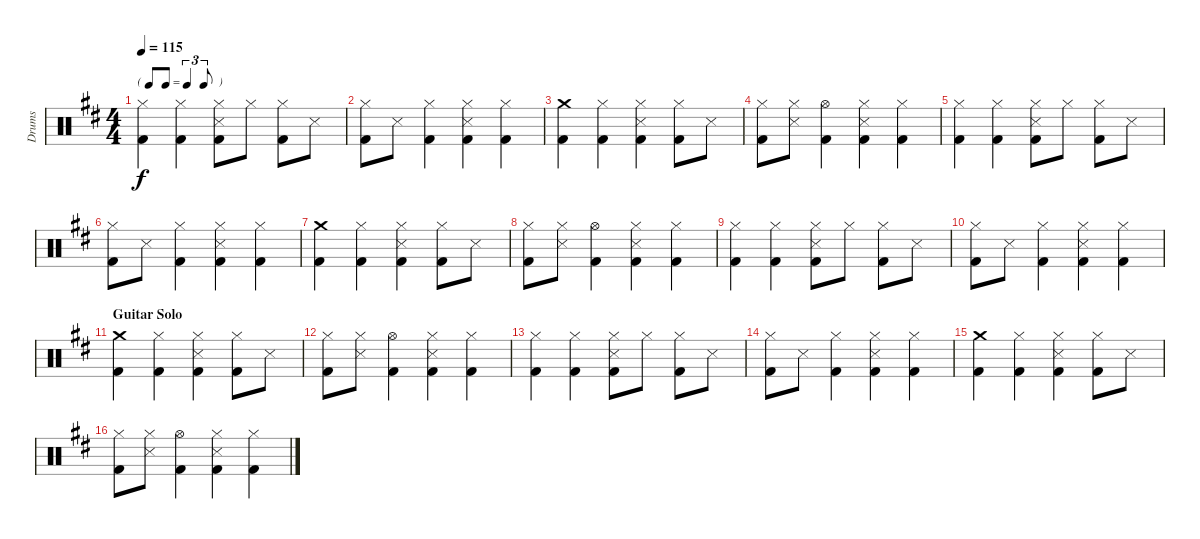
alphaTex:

\track ("Drums" "Drums") {instrument percussion}
\staff {score}
\articulation defaults
\ts (4 4)
\tf triplet8th
\tempo 115
\clef neutral
\ks d
("Hi-Hat (closed)" "Kick (hit) 2").4{dy f} ("Hi-Hat (closed)" "Kick (hit) 2").4 ("Hi-Hat (closed)" "Snare (side stick) 3" "Kick (hit) 2").8 "Hi-Hat (closed)".8 ("Hi-Hat (closed)" "Kick (hit) 2").8 "Snare (side stick) 3".8 |
("Hi-Hat (closed)" "Kick (hit) 2").8 "Snare (side stick) 3".8 ("Hi-Hat (closed)" "Kick (hit) 2").4 ("Hi-Hat (closed)" "Snare (side stick) 3" "Kick (hit) 2").4 ("Hi-Hat (closed)" "Kick (hit) 2").4 |
("Crash medium (hit)" "Kick (hit) 2").4 ("Hi-Hat (closed)" "Kick (hit) 2").4 ("Hi-Hat (closed)" "Snare (side stick) 3" "Kick (hit) 2").4 ("Hi-Hat (closed)" "Kick (hit) 2").8 "Snare (side stick) 3".8 |
("Hi-Hat (closed)" "Kick (hit) 2").8 ("Hi-Hat (closed)" "Snare (side stick) 3").8 ("Hi-Hat (open)" "Kick (hit) 2").4 ("Hi-Hat (closed)" "Snare (side stick) 3" "Kick (hit) 2").4 ("Hi-Hat (closed)" "Kick (hit) 2").4 |
("Hi-Hat (closed)" "Kick (hit) 2").4 ("Hi-Hat (closed)" "Kick (hit) 2").4 ("Hi-Hat (closed)" "Snare (side stick) 3" "Kick (hit) 2").8 "Hi-Hat (closed)".8 ("Hi-Hat (closed)" "Kick (hit) 2").8 "Snare (side stick) 3".8 |
("Hi-Hat (closed)" "Kick (hit) 2").8 "Snare (side stick) 3".8 ("Hi-Hat (closed)" "Kick (hit) 2").4 ("Hi-Hat (closed)" "Snare (side stick) 3" "Kick (hit) 2").4 ("Hi-Hat (closed)" "Kick (hit) 2").4 |
("Crash medium (hit)" "Kick (hit) 2").4 ("Hi-Hat (closed)" "Kick (hit) 2").4 ("Hi-Hat (closed)" "Snare (side stick) 3" "Kick (hit) 2").4 ("Hi-Hat (closed)" "Kick (hit) 2").8 "Snare (side stick) 3".8 |
("Hi-Hat (closed)" "Kick (hit) 2").8 ("Hi-Hat (closed)" "Snare (side stick) 3").8 ("Hi-Hat (open)" "Kick (hit) 2").4 ("Hi-Hat (closed)" "Snare (side stick) 3" "Kick (hit) 2").4 ("Hi-Hat (closed)" "Kick (hit) 2").4 |
("Hi-Hat (closed)" "Kick (hit) 2").4 ("Hi-Hat (closed)" "Kick (hit) 2").4 ("Hi-Hat (closed)" "Snare (side stick) 3" "Kick (hit) 2").8 "Hi-Hat (closed)".8 ("Hi-Hat (closed)" "Kick (hit) 2").8 "Snare (side stick) 3".8 |
("Hi-Hat (closed)" "Kick (hit) 2").8 "Snare (side stick) 3".8 ("Hi-Hat (closed)" "Kick (hit) 2").4 ("Hi-Hat (closed)" "Snare (side stick) 3" "Kick (hit) 2").4 ("Hi-Hat (closed)" "Kick (hit) 2").4 |
\section ("" "Guitar Solo")
("Crash medium (hit)" "Kick (hit) 2").4 ("Hi-Hat (closed)" "Kick (hit) 2").4 ("Hi-Hat (closed)" "Snare (side stick) 3" "Kick (hit) 2").4 ("Hi-Hat (closed)" "Kick (hit) 2").8 "Snare (side stick) 3".8 |
("Hi-Hat (closed)" "Kick (hit) 2").8 ("Hi-Hat (closed)" "Snare (side stick) 3").8 ("Hi-Hat (open)" "Kick (hit) 2").4 ("Hi-Hat (closed)" "Snare (side stick) 3" "Kick (hit) 2").4 ("Hi-Hat (closed)" "Kick (hit) 2").4 |
("Hi-Hat (closed)" "Kick (hit) 2").4 ("Hi-Hat (closed)" "Kick (hit) 2").4 ("Hi-Hat (closed)" "Snare (side stick) 3" "Kick (hit) 2").8 "Hi-Hat (closed)".8 ("Hi-Hat (closed)" "Kick (hit) 2").8 "Snare (side stick) 3".8 |
("Hi-Hat (closed)" "Kick (hit) 2").8 "Snare (side stick) 3".8 ("Hi-Hat (closed)" "Kick (hit) 2").4 ("Hi-Hat (closed)" "Snare (side stick) 3" "Kick (hit) 2").4 ("Hi-Hat (closed)" "Kick (hit) 2").4 |
("Crash medium (hit)" "Kick (hit) 2").4 ("Hi-Hat (closed)" "Kick (hit) 2").4 ("Hi-Hat (closed)" "Snare (side stick) 3" "Kick (hit) 2").4 ("Hi-Hat (closed)" "Kick (hit) 2").8 "Snare (side stick) 3".8 |
("Hi-Hat (closed)" "Kick (hit) 2").8 ("Hi-Hat (closed)" "Snare (side stick) 3").8 ("Hi-Hat (open)" "Kick (hit) 2").4 ("Hi-Hat (closed)" "Snare (side stick) 3" "Kick (hit) 2").4 ("Hi-Hat (closed)" "Kick (hit) 2").4
